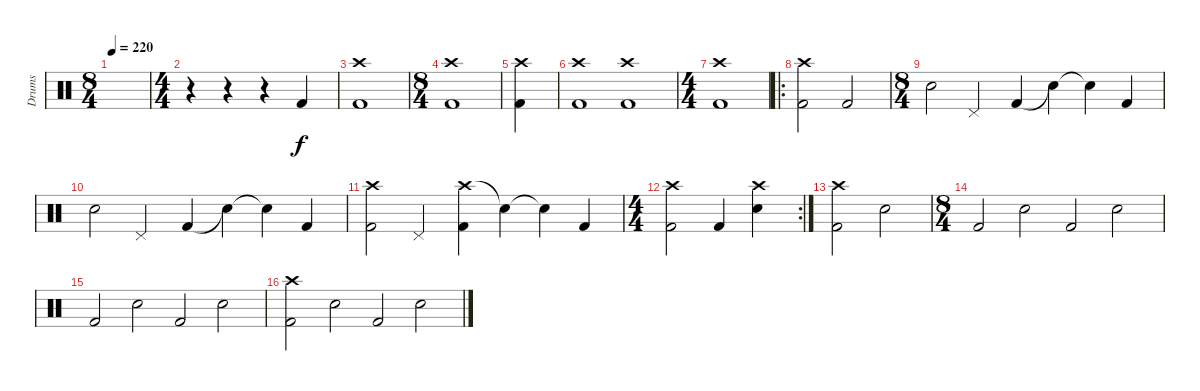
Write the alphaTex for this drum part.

\track ("Drums" "Drums") {instrument percussion}
\staff {score}
\articulation defaults
\ts (8 4)
\tempo 220
\clef neutral
\ks c
|
\ts (4 4)
r.4 r.4 r.4 "Kick (hit) 2".4 |
("Crash high (hit)" "Kick (hit) 2").1 |
\ts (8 4)
("Crash high (hit)" "Kick (hit) 2").1 |
("Crash high (hit)" "Kick (hit) 2").4 |
("Crash high (hit)" "Kick (hit) 2").1 ("Crash high (hit)" "Kick (hit) 2").1 |
\ts (4 4)
("Crash high (hit)" "Kick (hit) 2").1 |
\ro
("Kick (hit) 2" "Crash high (hit)").2 "Kick (hit) 2".2 |
\ts (8 4)
"Electric Snare (hit)".2 "Pedal Hi-Hat (hit)".2 "Kick (hit) 2".4 "Snare (hit)"{t}.4 "Snare (hit)"{t}.4 "Kick (hit) 2".4 |
"Electric Snare (hit)".2 "Pedal Hi-Hat (hit)".2 "Kick (hit) 2".4 "Snare (hit)"{t}.4 "Snare (hit)"{t}.4 "Kick (hit) 2".4 |
("Crash high (hit)" "Kick (hit) 2").2 "Pedal Hi-Hat (hit)".2 ("Crash high (hit)" "Kick (hit) 2").4 "Snare (hit)"{t}.4 "Snare (hit)"{t}.4 "Kick (hit) 2".4 |
\rc 2
\ts (4 4)
("Crash high (hit)" "Kick (hit) 2").2 "Kick (hit) 2".4 ("Crash high (hit)" "Electric Snare (hit)").4 |
("Crash high (hit)" "Kick (hit) 2").2 "Electric Snare (hit)".2 |
\ts (8 4)
"Kick (hit) 2".2 "Electric Snare (hit)".2 "Kick (hit) 2".2 "Electric Snare (hit)".2 |
"Kick (hit) 2".2 "Electric Snare (hit)".2 "Kick (hit) 2".2 "Electric Snare (hit)".2 |
("Kick (hit) 2" "Crash high (hit)").2 "Electric Snare (hit)".2 "Kick (hit) 2".2 "Electric Snare (hit)".2
